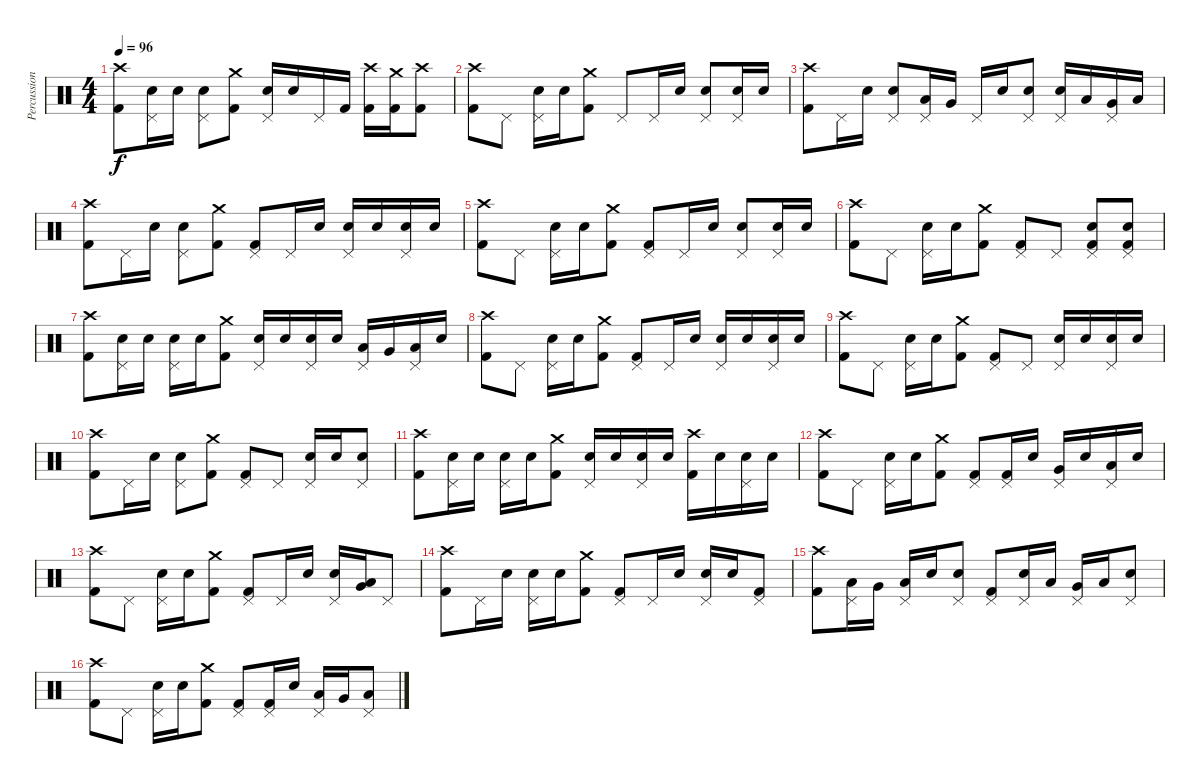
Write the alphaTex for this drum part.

\track ("Percussion" "Percussion") {instrument percussion}
\staff {score}
\articulation defaults
\ts (4 4)
\tempo 96
\clef neutral
\ks c
("Crash high (hit)" "Kick (hit) 2").8{dy f} ("Pedal Hi-Hat (hit)" "Electric Snare (hit)").16 "Electric Snare (hit)".16 ("Pedal Hi-Hat (hit)" "Electric Snare (hit)").8 ("Crash medium (hit)" "Kick (hit) 2").8 ("Pedal Hi-Hat (hit)" "Electric Snare (hit)").16 "Electric Snare (hit)".16 "Pedal Hi-Hat (hit)".16 "Kick (hit) 2".16 ("Crash high (hit)" "Kick (hit) 2").16 ("Crash medium (hit)" "Kick (hit) 2").16 ("Crash high (hit)" "Kick (hit) 2").8 |
("Crash high (hit)" "Kick (hit) 2").8 "Pedal Hi-Hat (hit)".8 ("Pedal Hi-Hat (hit)" "Electric Snare (hit)").16 "Electric Snare (hit)".16 ("Crash medium (hit)" "Kick (hit) 2").8 "Pedal Hi-Hat (hit)".8 "Pedal Hi-Hat (hit)".16 "Electric Snare (hit)".16 ("Pedal Hi-Hat (hit)" "Electric Snare (hit)").8 ("Pedal Hi-Hat (hit)" "Electric Snare (hit)").16 "Electric Snare (hit)".16 |
("Crash high (hit)" "Kick (hit) 2").8 "Pedal Hi-Hat (hit)".16 "Electric Snare (hit)".16 ("Pedal Hi-Hat (hit)" "Electric Snare (hit)").8 ("Pedal Hi-Hat (hit)" "Low Tom (hit)").16 "Very Low Tom (hit)".16 "Pedal Hi-Hat (hit)".16 "Electric Snare (hit)".16 ("Pedal Hi-Hat (hit)" "Electric Snare (hit)").8 ("Pedal Hi-Hat (hit)" "Electric Snare (hit)").16 "Low Tom (hit)".16 ("Pedal Hi-Hat (hit)" "Very Low Tom (hit)").16 "Low Floor Tom (hit)".16 |
("Crash high (hit)" "Kick (hit) 2").8 "Pedal Hi-Hat (hit)".16 "Electric Snare (hit)".16 ("Pedal Hi-Hat (hit)" "Electric Snare (hit)").8 ("Crash medium (hit)" "Kick (hit) 2").8 ("Pedal Hi-Hat (hit)" "Kick (hit) 2").8 "Pedal Hi-Hat (hit)".16 "Electric Snare (hit)".16 ("Pedal Hi-Hat (hit)" "Electric Snare (hit)").16 "Electric Snare (hit)".16 ("Pedal Hi-Hat (hit)" "Electric Snare (hit)").16 "Electric Snare (hit)".16 |
("Crash high (hit)" "Kick (hit) 2").8 "Pedal Hi-Hat (hit)".8 ("Pedal Hi-Hat (hit)" "Electric Snare (hit)").16 "Electric Snare (hit)".16 ("Crash medium (hit)" "Kick (hit) 2").8 ("Pedal Hi-Hat (hit)" "Kick (hit) 2").8 "Pedal Hi-Hat (hit)".16 "Electric Snare (hit)".16 ("Pedal Hi-Hat (hit)" "Electric Snare (hit)").8 ("Pedal Hi-Hat (hit)" "Electric Snare (hit)").16 "Electric Snare (hit)".16 |
("Crash high (hit)" "Kick (hit) 2").8 "Pedal Hi-Hat (hit)".8 ("Pedal Hi-Hat (hit)" "Electric Snare (hit)").16 "Electric Snare (hit)".16 ("Crash medium (hit)" "Kick (hit) 2").8 ("Pedal Hi-Hat (hit)" "Kick (hit) 2").8 "Pedal Hi-Hat (hit)".8 ("Pedal Hi-Hat (hit)" "Electric Snare (hit)" "Kick (hit) 2").8 ("Pedal Hi-Hat (hit)" "Electric Snare (hit)" "Kick (hit) 2").8 |
("Crash high (hit)" "Kick (hit) 2").8 ("Pedal Hi-Hat (hit)" "Electric Snare (hit)").16 "Electric Snare (hit)".16 ("Pedal Hi-Hat (hit)" "Electric Snare (hit)").16 "Electric Snare (hit)".16 ("Crash medium (hit)" "Kick (hit) 2").8 ("Pedal Hi-Hat (hit)" "Electric Snare (hit)").16 "Electric Snare (hit)".16 ("Pedal Hi-Hat (hit)" "Electric Snare (hit)").16 "Electric Snare (hit)".16 ("Pedal Hi-Hat (hit)" "Low Tom (hit)").16 "Very Low Tom (hit)".16 ("Pedal Hi-Hat (hit)" "Low Floor Tom (hit)").16 "Snare (hit)".16 |
("Crash high (hit)" "Kick (hit) 2").8 "Pedal Hi-Hat (hit)".8 ("Pedal Hi-Hat (hit)" "Electric Snare (hit)").16 "Electric Snare (hit)".16 ("Crash medium (hit)" "Kick (hit) 2").8 ("Pedal Hi-Hat (hit)" "Kick (hit) 2").8 "Pedal Hi-Hat (hit)".16 "Electric Snare (hit)".16 ("Pedal Hi-Hat (hit)" "Electric Snare (hit)").16 "Electric Snare (hit)".16 ("Pedal Hi-Hat (hit)" "Electric Snare (hit)").16 "Electric Snare (hit)".16 |
("Crash high (hit)" "Kick (hit) 2").8 "Pedal Hi-Hat (hit)".8 ("Pedal Hi-Hat (hit)" "Electric Snare (hit)").16 "Electric Snare (hit)".16 ("Crash medium (hit)" "Kick (hit) 2").8 ("Pedal Hi-Hat (hit)" "Kick (hit) 2").8 "Pedal Hi-Hat (hit)".8 ("Pedal Hi-Hat (hit)" "Electric Snare (hit)").16 "Electric Snare (hit)".16 ("Pedal Hi-Hat (hit)" "Electric Snare (hit)").16 "Electric Snare (hit)".16 |
("Crash high (hit)" "Kick (hit) 2").8 "Pedal Hi-Hat (hit)".16 "Electric Snare (hit)".16 ("Pedal Hi-Hat (hit)" "Electric Snare (hit)").8 ("Crash medium (hit)" "Kick (hit) 2").8 ("Pedal Hi-Hat (hit)" "Kick (hit) 2").8 "Pedal Hi-Hat (hit)".8 ("Pedal Hi-Hat (hit)" "Electric Snare (hit)").16 "Electric Snare (hit)".16 ("Pedal Hi-Hat (hit)" "Electric Snare (hit)").8 |
("Crash high (hit)" "Kick (hit) 2").8 ("Pedal Hi-Hat (hit)" "Electric Snare (hit)").16 "Electric Snare (hit)".16 ("Pedal Hi-Hat (hit)" "Electric Snare (hit)").16 "Electric Snare (hit)".16 ("Crash medium (hit)" "Kick (hit) 2").8 ("Pedal Hi-Hat (hit)" "Electric Snare (hit)").16 "Electric Snare (hit)".16 ("Pedal Hi-Hat (hit)" "Electric Snare (hit)").16 "Electric Snare (hit)".16 ("Crash high (hit)" "Kick (hit) 2").16 "Electric Snare (hit)".16 ("Pedal Hi-Hat (hit)" "Electric Snare (hit)").16 "Electric Snare (hit)".16 |
("Crash high (hit)" "Kick (hit) 2").8 "Pedal Hi-Hat (hit)".8 ("Pedal Hi-Hat (hit)" "Electric Snare (hit)").16 "Electric Snare (hit)".16 ("Crash medium (hit)" "Kick (hit) 2").8 ("Pedal Hi-Hat (hit)" "Kick (hit) 2").8 ("Pedal Hi-Hat (hit)" "Kick (hit) 2").16 "Electric Snare (hit)".16 ("Pedal Hi-Hat (hit)" "Very Low Tom (hit)").16 "Electric Snare (hit)".16 ("Pedal Hi-Hat (hit)" "Low Floor Tom (hit)").16 "Electric Snare (hit)".16 |
("Crash high (hit)" "Kick (hit) 2").8 "Pedal Hi-Hat (hit)".8 ("Pedal Hi-Hat (hit)" "Electric Snare (hit)").16 "Electric Snare (hit)".16 ("Crash medium (hit)" "Kick (hit) 2").8 ("Pedal Hi-Hat (hit)" "Kick (hit) 2").8 "Pedal Hi-Hat (hit)".16 "Electric Snare (hit)".16 ("Pedal Hi-Hat (hit)" "Electric Snare (hit)").16 ("Low Tom (hit)" "Very Low Tom (hit)").16 "Pedal Hi-Hat (hit)".8 |
("Crash high (hit)" "Kick (hit) 2").8 "Pedal Hi-Hat (hit)".16 "Electric Snare (hit)".16 ("Pedal Hi-Hat (hit)" "Electric Snare (hit)").16 "Electric Snare (hit)".16 ("Crash medium (hit)" "Kick (hit) 2").8 ("Pedal Hi-Hat (hit)" "Kick (hit) 2").8 "Pedal Hi-Hat (hit)".16 "Electric Snare (hit)".16 ("Pedal Hi-Hat (hit)" "Electric Snare (hit)").16 "Electric Snare (hit)".16 ("Pedal Hi-Hat (hit)" "Kick (hit) 2").8 |
("Crash high (hit)" "Kick (hit) 2").8 ("Pedal Hi-Hat (hit)" "Low Tom (hit)").16 "Very Low Tom (hit)".16 ("Pedal Hi-Hat (hit)" "Low Floor Tom (hit)").16 "Electric Snare (hit)".16 ("Pedal Hi-Hat (hit)" "Electric Snare (hit)").8 ("Pedal Hi-Hat (hit)" "Kick (hit) 2").8 ("Pedal Hi-Hat (hit)" "Electric Snare (hit)").16 "Low Tom (hit)".16 ("Pedal Hi-Hat (hit)" "Very Low Tom (hit)").16 "Low Floor Tom (hit)".16 ("Pedal Hi-Hat (hit)" "Snare (hit)").8 |
("Crash high (hit)" "Kick (hit) 2").8 "Pedal Hi-Hat (hit)".8 ("Pedal Hi-Hat (hit)" "Electric Snare (hit)").16 "Electric Snare (hit)".16 ("Crash medium (hit)" "Kick (hit) 2").8 ("Pedal Hi-Hat (hit)" "Kick (hit) 2").8 ("Pedal Hi-Hat (hit)" "Kick (hit) 2").16 "Electric Snare (hit)".16 ("Pedal Hi-Hat (hit)" "Low Tom (hit)").16 "Very Low Tom (hit)".16 ("Pedal Hi-Hat (hit)" "Low Floor Tom (hit)").8
